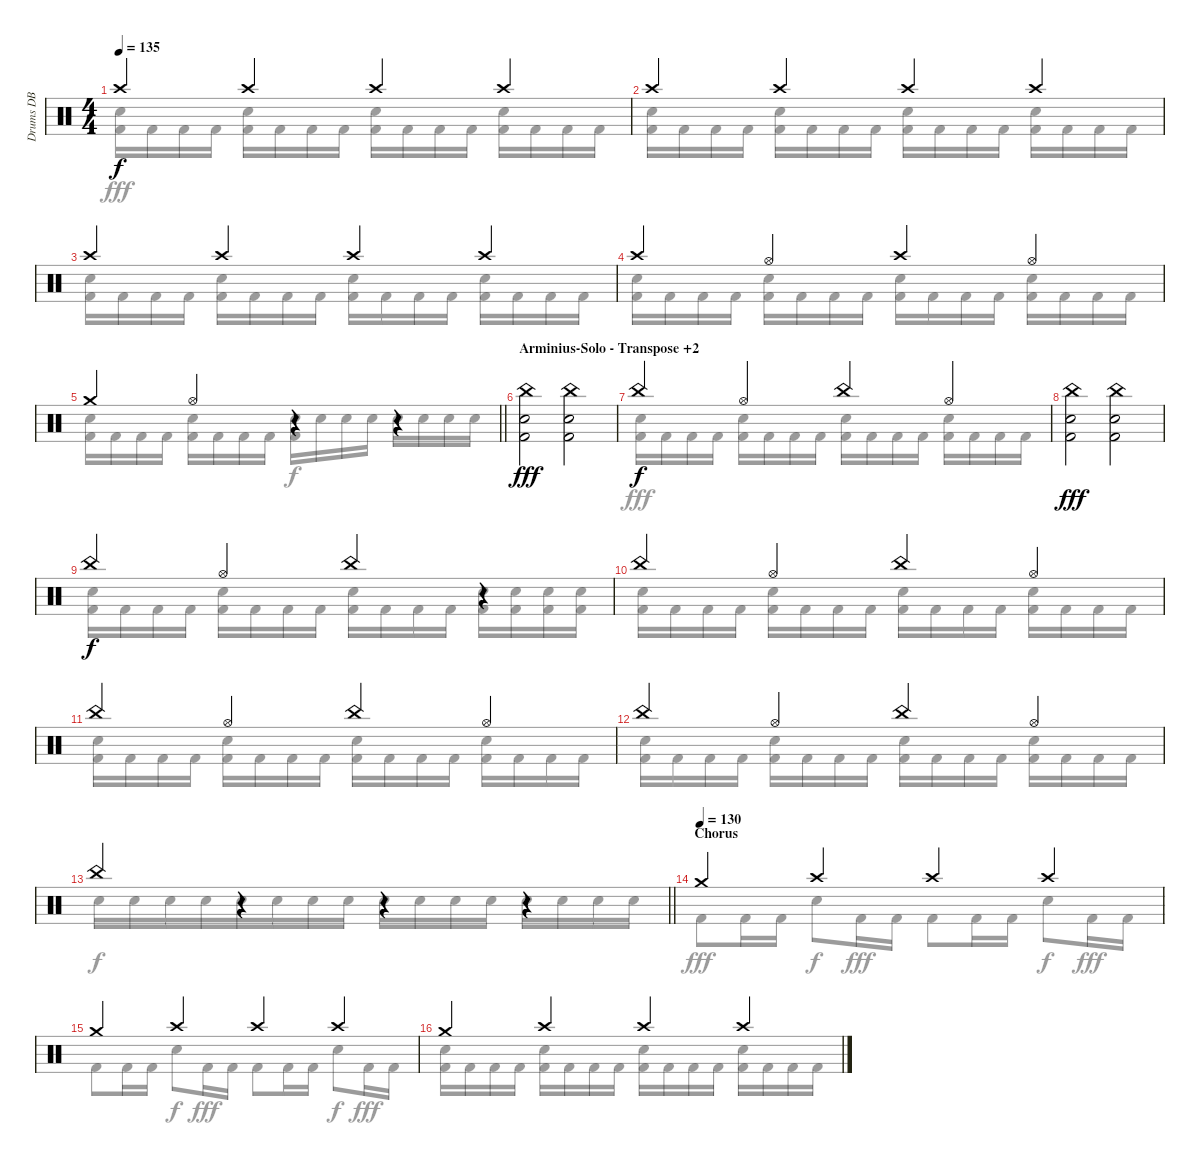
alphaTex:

\track ("Drums DB" "Drums DB") {instrument percussion}
\staff {score}
\articulation defaults
\voice
\ts (4 4)
\tempo 135
\clef neutral
\ks aminor "Crash high (hit)".4{dy f beam merge} "Crash high (hit)".4 "Crash high (hit)".4 "Crash high (hit)".4
|
"Crash high (hit)".4{beam merge} "Crash high (hit)".4 "Crash high (hit)".4 "Crash high (hit)".4 |
"Crash high (hit)".4 "Crash high (hit)".4 "Crash high (hit)".4 "Crash high (hit)".4 |
"Crash high (hit)".4 "Hi-Hat (open)".4{beam merge} "Crash high (hit)".4 "Hi-Hat (open)".4 |
\barLineRight lightlight "Crash medium (hit)".4 "Hi-Hat (open)".4{beam merge}
r.4 r.4 |
\section ("" "Arminius-Solo - Transpose +2")
("China (hit)" "Snare (hit) 2" "Kick (hit) 2").2{dy fff} ("China (hit)" "Snare (hit) 2" "Kick (hit) 2").2 |
"China (hit)".4{dy f} "Hi-Hat (open)".4{beam merge} "China (hit)".4{beam merge} "Hi-Hat (open)".4 |
("China (hit)" "Snare (hit) 2" "Kick (hit) 2").2{dy fff} ("China (hit)" "Snare (hit) 2" "Kick (hit) 2").2 |
"China (hit)".4{dy f} "Hi-Hat (open)".4{beam merge} "China (hit)".4 r.4 |
"China (hit)".4 "Hi-Hat (open)".4{beam merge} "China (hit)".4 "Hi-Hat (open)".4 |
"China (hit)".4 "Hi-Hat (open)".4 "China (hit)".4 "Hi-Hat (open)".4 |
"China (hit)".4 "Hi-Hat (open)".4{beam merge} "China (hit)".4 "Hi-Hat (open)".4 |
\barLineRight lightlight "China (hit)".4{beam merge}
r.4{beam merge} r.4{beam merge} r.4 |
\section ("" "Chorus")
\tempo (130)
"Crash medium (hit)".4 "Crash high (hit)".4 "Crash high (hit)".4 "Crash high (hit)".4 |
"Crash medium (hit)".4 "Crash high (hit)".4 "Crash high (hit)".4 "Crash high (hit)".4 |
"Crash medium (hit)".4 "Crash high (hit)".4 "Crash high (hit)".4 "Crash high (hit)".4
\voice
\clef neutral
\ottava regular
\simile none
\ks aminor
("Snare (hit) 2" "Kick (hit) 2").16{dy fff} "Kick (hit) 2".16 "Kick (hit) 2".16 "Kick (hit) 2".16 ("Snare (hit) 2" "Kick (hit) 2").16 "Kick (hit) 2".16 "Kick (hit) 2".16 "Kick (hit) 2".16 ("Snare (hit) 2" "Kick (hit) 2").16 "Kick (hit) 2".16 "Kick (hit) 2".16 "Kick (hit) 2".16 ("Snare (hit) 2" "Kick (hit) 2").16 "Kick (hit) 2".16 "Kick (hit) 2".16 "Kick (hit) 2".16 |
("Snare (hit) 2" "Kick (hit) 2").16 "Kick (hit) 2".16 "Kick (hit) 2".16 "Kick (hit) 2".16 ("Snare (hit) 2" "Kick (hit) 2").16 "Kick (hit) 2".16 "Kick (hit) 2".16 "Kick (hit) 2".16 ("Snare (hit) 2" "Kick (hit) 2").16 "Kick (hit) 2".16 "Kick (hit) 2".16 "Kick (hit) 2".16 ("Snare (hit) 2" "Kick (hit) 2").16 "Kick (hit) 2".16 "Kick (hit) 2".16 "Kick (hit) 2".16 |
("Snare (hit) 2" "Kick (hit) 2").16 "Kick (hit) 2".16 "Kick (hit) 2".16 "Kick (hit) 2".16 ("Snare (hit) 2" "Kick (hit) 2").16 "Kick (hit) 2".16 "Kick (hit) 2".16 "Kick (hit) 2".16 ("Snare (hit) 2" "Kick (hit) 2").16 "Kick (hit) 2".16 "Kick (hit) 2".16 "Kick (hit) 2".16 ("Snare (hit) 2" "Kick (hit) 2").16 "Kick (hit) 2".16 "Kick (hit) 2".16 "Kick (hit) 2".16 |
("Snare (hit) 2" "Kick (hit) 2").16 "Kick (hit) 2".16 "Kick (hit) 2".16 "Kick (hit) 2".16 ("Snare (hit) 2" "Kick (hit) 2").16 "Kick (hit) 2".16 "Kick (hit) 2".16 "Kick (hit) 2".16 ("Snare (hit) 2" "Kick (hit) 2").16 "Kick (hit) 2".16 "Kick (hit) 2".16 "Kick (hit) 2".16 ("Snare (hit) 2" "Kick (hit) 2").16 "Kick (hit) 2".16 "Kick (hit) 2".16 "Kick (hit) 2".16 |
\barLineRight lightlight
("Snare (hit) 2" "Kick (hit) 2").16 "Kick (hit) 2".16 "Kick (hit) 2".16 "Kick (hit) 2".16 ("Snare (hit) 2" "Kick (hit) 2").16 "Kick (hit) 2".16 "Kick (hit) 2".16 "Kick (hit) 2".16 ("Snare (hit) 2" "Kick (hit) 2").16{dy f} "Snare (hit) 2".16 "Snare (hit) 2".16 "Snare (hit) 2".16 "Snare (hit) 2".16 "Snare (hit) 2".16 "Snare (hit) 2".16 "Snare (hit) 2".16 |
|
("Snare (hit) 2" "Kick (hit) 2").16{dy fff} "Kick (hit) 2".16 "Kick (hit) 2".16 "Kick (hit) 2".16 ("Snare (hit) 2" "Kick (hit) 2").16 "Kick (hit) 2".16 "Kick (hit) 2".16 "Kick (hit) 2".16 ("Snare (hit) 2" "Kick (hit) 2").16 "Kick (hit) 2".16 "Kick (hit) 2".16 "Kick (hit) 2".16 ("Snare (hit) 2" "Kick (hit) 2").16 "Kick (hit) 2".16 "Kick (hit) 2".16 "Kick (hit) 2".16 |
|
("Snare (hit) 2" "Kick (hit) 2").16 "Kick (hit) 2".16 "Kick (hit) 2".16 "Kick (hit) 2".16 ("Snare (hit) 2" "Kick (hit) 2").16 "Kick (hit) 2".16 "Kick (hit) 2".16 "Kick (hit) 2".16 ("Snare (hit) 2" "Kick (hit) 2").16 "Kick (hit) 2".16 "Kick (hit) 2".16 "Kick (hit) 2".16 ("Snare (hit) 2" "Kick (hit) 2").16 ("Snare (hit) 2" "Kick (hit) 2").16 ("Snare (hit) 2" "Kick (hit) 2").16 ("Snare (hit) 2" "Kick (hit) 2").16 |
("Snare (hit) 2" "Kick (hit) 2").16 "Kick (hit) 2".16 "Kick (hit) 2".16 "Kick (hit) 2".16 ("Snare (hit) 2" "Kick (hit) 2").16 "Kick (hit) 2".16 "Kick (hit) 2".16 "Kick (hit) 2".16 ("Snare (hit) 2" "Kick (hit) 2").16 "Kick (hit) 2".16 "Kick (hit) 2".16 "Kick (hit) 2".16 ("Snare (hit) 2" "Kick (hit) 2").16 "Kick (hit) 2".16 "Kick (hit) 2".16 "Kick (hit) 2".16 |
("Snare (hit) 2" "Kick (hit) 2").16 "Kick (hit) 2".16 "Kick (hit) 2".16 "Kick (hit) 2".16 ("Snare (hit) 2" "Kick (hit) 2").16 "Kick (hit) 2".16 "Kick (hit) 2".16 "Kick (hit) 2".16 ("Snare (hit) 2" "Kick (hit) 2").16 "Kick (hit) 2".16 "Kick (hit) 2".16 "Kick (hit) 2".16 ("Snare (hit) 2" "Kick (hit) 2").16 "Kick (hit) 2".16 "Kick (hit) 2".16 "Kick (hit) 2".16 |
("Snare (hit) 2" "Kick (hit) 2").16 "Kick (hit) 2".16 "Kick (hit) 2".16 "Kick (hit) 2".16 ("Snare (hit) 2" "Kick (hit) 2").16 "Kick (hit) 2".16 "Kick (hit) 2".16 "Kick (hit) 2".16 ("Snare (hit) 2" "Kick (hit) 2").16 "Kick (hit) 2".16 "Kick (hit) 2".16 "Kick (hit) 2".16 ("Snare (hit) 2" "Kick (hit) 2").16 "Kick (hit) 2".16 "Kick (hit) 2".16 "Kick (hit) 2".16 |
\barLineRight lightlight "Snare (hit) 2".16{dy f beam merge} "Snare (hit) 2".16 "Snare (hit) 2".16 "Snare (hit) 2".16{beam merge} "Snare (hit) 2".16{beam merge} "Snare (hit) 2".16 "Snare (hit) 2".16 "Snare (hit) 2".16 "Snare (hit) 2".16 "Snare (hit) 2".16 "Snare (hit) 2".16 "Snare (hit) 2".16 "Snare (hit) 2".16 "Snare (hit) 2".16{beam merge} "Snare (hit) 2".16 "Snare (hit) 2".16
|
"Kick (hit) 2".8{dy fff} "Kick (hit) 2".16 "Kick (hit) 2".16 "Snare (hit) 2".8{dy f} "Kick (hit) 2".16{dy fff} "Kick (hit) 2".16 "Kick (hit) 2".8 "Kick (hit) 2".16 "Kick (hit) 2".16 "Snare (hit) 2".8{dy f} "Kick (hit) 2".16{dy fff} "Kick (hit) 2".16 |
"Kick (hit) 2".8 "Kick (hit) 2".16 "Kick (hit) 2".16 "Snare (hit) 2".8{dy f} "Kick (hit) 2".16{dy fff} "Kick (hit) 2".16 "Kick (hit) 2".8 "Kick (hit) 2".16 "Kick (hit) 2".16 "Snare (hit) 2".8{dy f} "Kick (hit) 2".16{dy fff} "Kick (hit) 2".16 |
("Snare (hit) 2" "Kick (hit) 2").16 "Kick (hit) 2".16 "Kick (hit) 2".16 "Kick (hit) 2".16 ("Snare (hit) 2" "Kick (hit) 2").16 "Kick (hit) 2".16 "Kick (hit) 2".16 "Kick (hit) 2".16 ("Snare (hit) 2" "Kick (hit) 2").16 "Kick (hit) 2".16 "Kick (hit) 2".16 "Kick (hit) 2".16 ("Snare (hit) 2" "Kick (hit) 2").16 "Kick (hit) 2".16 "Kick (hit) 2".16 "Kick (hit) 2".16
